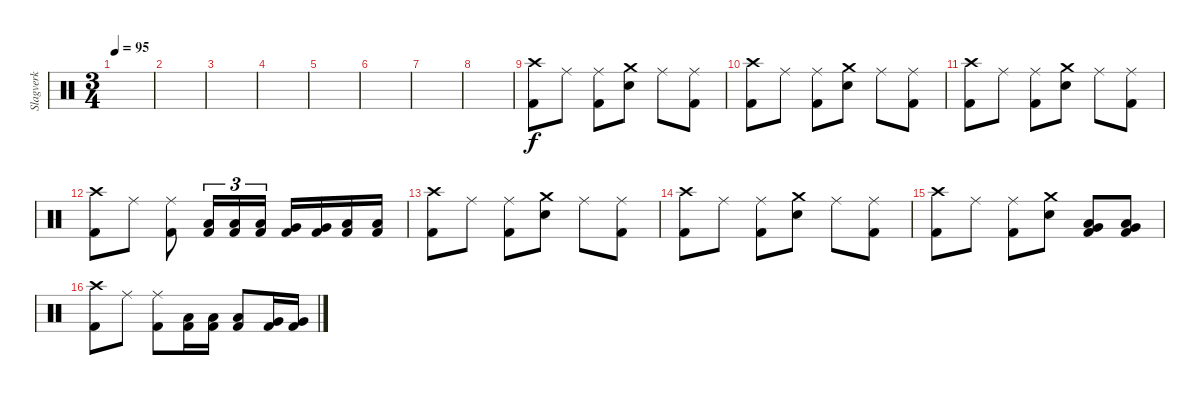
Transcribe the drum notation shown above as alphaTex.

\track ("Slagverk" "Slagverk") {instrument percussion}
\staff {score}
\articulation defaults
\ts (3 4)
\tempo 95
\clef neutral
\ks c
|
|
|
|
|
|
|
|
("Crash high (hit)" "Kick (hit) 2").8 "Ride (middle)".8 ("Ride (middle)" "Kick (hit) 2").8 ("Crash medium (hit)" "Electric Snare (hit)").8 "Ride (middle)".8 ("Ride (middle)" "Kick (hit) 2").8 |
("Crash high (hit)" "Kick (hit) 2").8 "Ride (middle)".8 ("Ride (middle)" "Kick (hit) 2").8 ("Crash medium (hit)" "Electric Snare (hit)").8 "Ride (middle)".8 ("Ride (middle)" "Kick (hit) 2").8 |
("Crash high (hit)" "Kick (hit) 2").8 "Ride (middle)".8 ("Ride (middle)" "Kick (hit) 2").8 ("Crash medium (hit)" "Electric Snare (hit)").8 "Ride (middle)".8 ("Ride (middle)" "Kick (hit) 2").8 |
("Crash high (hit)" "Kick (hit) 2").8 "Ride (middle)".8 ("Ride (middle)" "Kick (hit) 2").8 ("Low Tom (hit)" "Kick (hit) 2").16{tu (3 2)} ("Low Tom (hit)" "Kick (hit) 2").16{tu (3 2)} ("Low Tom (hit)" "Kick (hit) 2").16{tu (3 2)} ("Very Low Tom (hit)" "Kick (hit) 2").16 ("Very Low Tom (hit)" "Kick (hit) 2").16 ("Low Floor Tom (hit)" "Kick (hit) 2").16 ("Low Floor Tom (hit)" "Kick (hit) 2").16 |
("Crash high (hit)" "Kick (hit) 2").8 "Ride (middle)".8 ("Ride (middle)" "Kick (hit) 2").8 ("Crash medium (hit)" "Electric Snare (hit)").8 "Ride (middle)".8 ("Ride (middle)" "Kick (hit) 2").8 |
("Crash high (hit)" "Kick (hit) 2").8 "Ride (middle)".8 ("Ride (middle)" "Kick (hit) 2").8 ("Crash medium (hit)" "Electric Snare (hit)").8 "Ride (middle)".8 ("Ride (middle)" "Kick (hit) 2").8 |
("Crash high (hit)" "Kick (hit) 2").8 "Ride (middle)".8 ("Ride (middle)" "Kick (hit) 2").8 ("Crash medium (hit)" "Electric Snare (hit)").8 ("Low Tom (hit)" "Very Low Tom (hit)" "Kick (hit) 2").8 ("Low Tom (hit)" "Very Low Tom (hit)" "Kick (hit) 2").8 |
("Crash high (hit)" "Kick (hit) 2").8 "Ride (middle)".8 ("Ride (middle)" "Kick (hit) 2").8 ("Low Tom (hit)" "Kick (hit) 2").16 ("Low Tom (hit)" "Kick (hit) 2").16 ("Low Tom (hit)" "Kick (hit) 2").8 ("Very Low Tom (hit)" "Kick (hit) 2").16 ("Very Low Tom (hit)" "Kick (hit) 2").16
